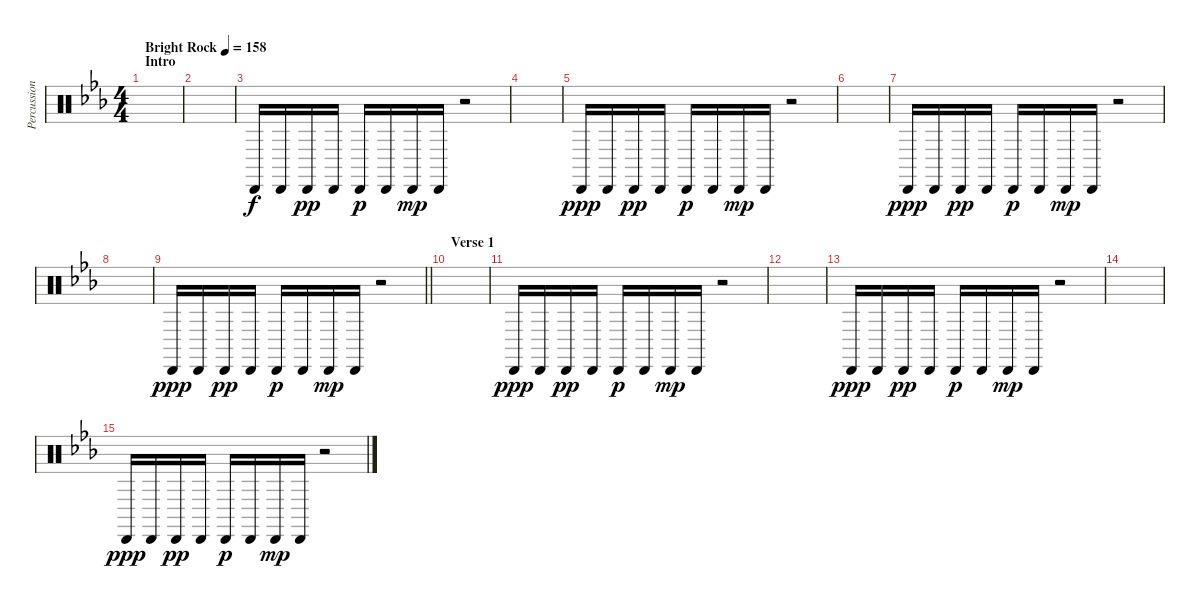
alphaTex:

\track ("Percussion" "Percussion") {instrument percussion}
\staff {score}
\articulation defaults
\ts (4 4)
\section ("" "Intro")
\tempo (158 "Bright Rock")
\clef neutral
\ks eb
|
|
"Cabasa (hit)".16 "Cabasa (hit)".16 "Cabasa (hit)".16{dy pp} "Cabasa (hit)".16 "Cabasa (hit)".16{dy p} "Cabasa (hit)".16 "Cabasa (hit)".16{dy mp} "Cabasa (hit)".16 r.2 |
|
"Cabasa (hit)".16{dy ppp} "Cabasa (hit)".16 "Cabasa (hit)".16{dy pp} "Cabasa (hit)".16 "Cabasa (hit)".16{dy p} "Cabasa (hit)".16 "Cabasa (hit)".16{dy mp} "Cabasa (hit)".16 r.2 |
|
"Cabasa (hit)".16{dy ppp} "Cabasa (hit)".16 "Cabasa (hit)".16{dy pp} "Cabasa (hit)".16 "Cabasa (hit)".16{dy p} "Cabasa (hit)".16 "Cabasa (hit)".16{dy mp} "Cabasa (hit)".16 r.2 |
|
\barLineRight lightlight "Cabasa (hit)".16{dy ppp} "Cabasa (hit)".16 "Cabasa (hit)".16{dy pp} "Cabasa (hit)".16 "Cabasa (hit)".16{dy p} "Cabasa (hit)".16 "Cabasa (hit)".16{dy mp} "Cabasa (hit)".16
r.2 |
\section ("" "Verse 1")
|
"Cabasa (hit)".16{dy ppp} "Cabasa (hit)".16 "Cabasa (hit)".16{dy pp} "Cabasa (hit)".16 "Cabasa (hit)".16{dy p} "Cabasa (hit)".16 "Cabasa (hit)".16{dy mp} "Cabasa (hit)".16 r.2 |
|
"Cabasa (hit)".16{dy ppp} "Cabasa (hit)".16 "Cabasa (hit)".16{dy pp} "Cabasa (hit)".16 "Cabasa (hit)".16{dy p} "Cabasa (hit)".16 "Cabasa (hit)".16{dy mp} "Cabasa (hit)".16 r.2 |
|
"Cabasa (hit)".16{dy ppp} "Cabasa (hit)".16 "Cabasa (hit)".16{dy pp} "Cabasa (hit)".16 "Cabasa (hit)".16{dy p} "Cabasa (hit)".16 "Cabasa (hit)".16{dy mp} "Cabasa (hit)".16 r.2
